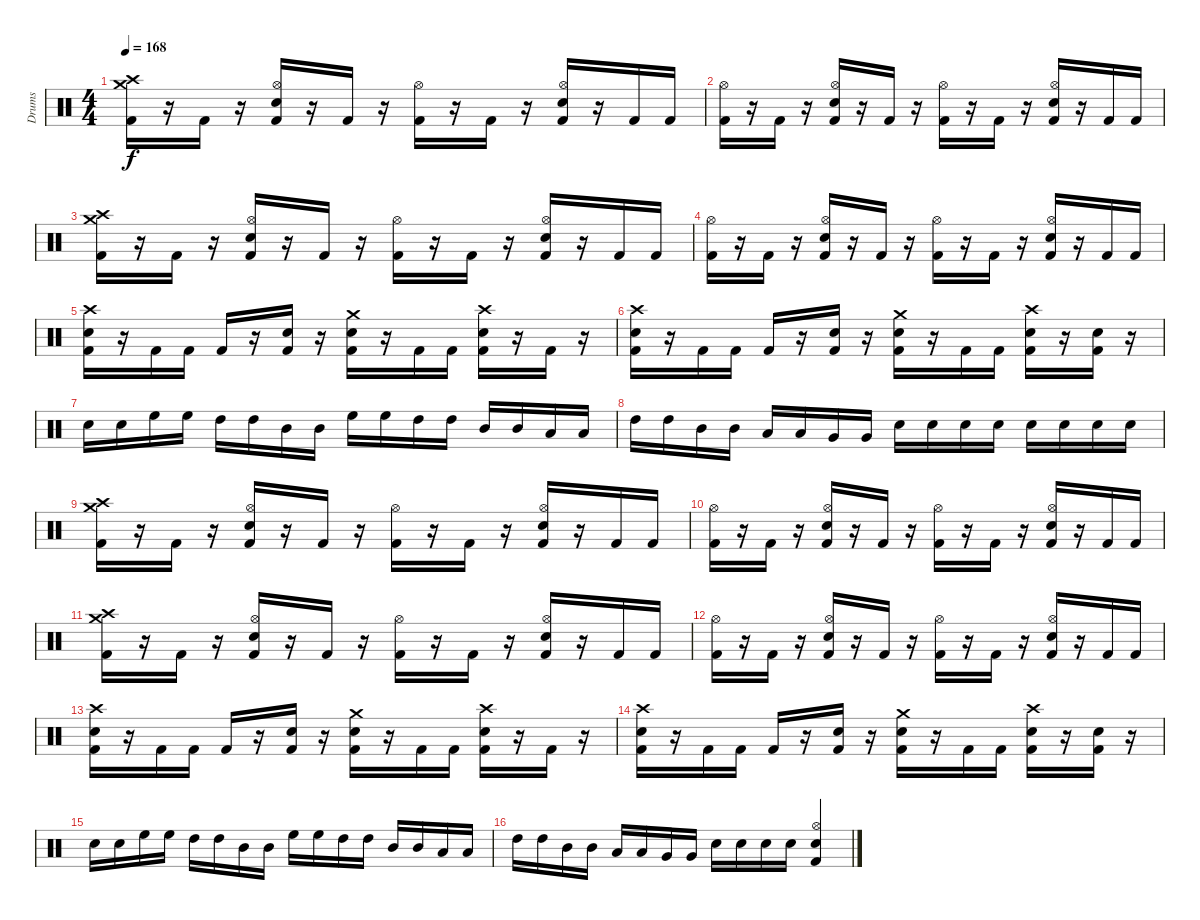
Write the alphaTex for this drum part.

\track ("Drums" "Drums") {instrument percussion}
\staff {score}
\articulation defaults
\ts (4 4)
\tempo 168
\clef neutral
\ks c
("Crash medium (hit)" "Crash high (hit)" "Kick (hit) 2").16{dy f} r.16 "Kick (hit) 2".16 r.16 ("Hi-Hat (open)" "Snare (hit) 2" "Kick (hit) 2").16 r.16 "Kick (hit) 2".16 r.16 ("Hi-Hat (open)" "Kick (hit) 2").16 r.16 "Kick (hit) 2".16 r.16 ("Hi-Hat (open)" "Snare (hit) 2" "Kick (hit) 2").16 r.16 "Kick (hit) 2".16 "Kick (hit) 2".16 |
("Hi-Hat (open)" "Kick (hit) 2").16 r.16 "Kick (hit) 2".16 r.16 ("Hi-Hat (open)" "Snare (hit) 2" "Kick (hit) 2").16 r.16 "Kick (hit) 2".16 r.16 ("Hi-Hat (open)" "Kick (hit) 2").16 r.16 "Kick (hit) 2".16 r.16 ("Hi-Hat (open)" "Snare (hit) 2" "Kick (hit) 2").16 r.16 "Kick (hit) 2".16 "Kick (hit) 2".16 |
("Crash medium (hit)" "Crash high (hit)" "Kick (hit) 2").16 r.16 "Kick (hit) 2".16 r.16 ("Hi-Hat (open)" "Snare (hit) 2" "Kick (hit) 2").16 r.16 "Kick (hit) 2".16 r.16 ("Hi-Hat (open)" "Kick (hit) 2").16 r.16 "Kick (hit) 2".16 r.16 ("Hi-Hat (open)" "Snare (hit) 2" "Kick (hit) 2").16 r.16 "Kick (hit) 2".16 "Kick (hit) 2".16 |
("Hi-Hat (open)" "Kick (hit) 2").16 r.16 "Kick (hit) 2".16 r.16 ("Hi-Hat (open)" "Snare (hit) 2" "Kick (hit) 2").16 r.16 "Kick (hit) 2".16 r.16 ("Hi-Hat (open)" "Kick (hit) 2").16 r.16 "Kick (hit) 2".16 r.16 ("Hi-Hat (open)" "Snare (hit) 2" "Kick (hit) 2").16 r.16 "Kick (hit) 2".16 "Kick (hit) 2".16 |
("Crash high (hit)" "Snare (hit) 2" "Kick (hit) 2").16 r.16 "Kick (hit) 2".16 "Kick (hit) 2".16 "Kick (hit) 2".16 r.16 ("Snare (hit) 2" "Kick (hit) 2").16 r.16 ("Crash medium (hit)" "Snare (hit) 2" "Kick (hit) 2").16 r.16 "Kick (hit) 2".16 "Kick (hit) 2".16 ("Crash high (hit)" "Snare (hit) 2" "Kick (hit) 2").16 r.16 "Kick (hit) 2".16 r.16 |
("Crash high (hit)" "Snare (hit) 2" "Kick (hit) 2").16 r.16 "Kick (hit) 2".16 "Kick (hit) 2".16 "Kick (hit) 2".16 r.16 ("Snare (hit) 2" "Kick (hit) 2").16 r.16 ("Crash medium (hit)" "Snare (hit) 2" "Kick (hit) 2").16 r.16 "Kick (hit) 2".16 "Kick (hit) 2".16 ("Crash high (hit)" "Snare (hit) 2" "Kick (hit) 2").16 r.16 ("Snare (hit) 2" "Kick (hit) 2").16 r.16 |
"Snare (hit) 2".16 "Snare (hit) 2".16 "High Floor Tom (hit)".16 "High Floor Tom (hit)".16 "High Tom (hit)".16 "High Tom (hit)".16 "Mid Tom (hit)".16 "Mid Tom (hit)".16 "High Floor Tom (hit)".16 "High Floor Tom (hit)".16 "High Tom (hit)".16 "High Tom (hit)".16 "Mid Tom (hit)".16 "Mid Tom (hit)".16 "Low Tom (hit)".16 "Low Tom (hit)".16 |
"High Tom (hit)".16 "High Tom (hit)".16 "Mid Tom (hit)".16 "Mid Tom (hit)".16 "Low Tom (hit)".16 "Low Tom (hit)".16 "Very Low Tom (hit)".16 "Very Low Tom (hit)".16 "Snare (hit) 2".16 "Snare (hit) 2".16 "Snare (hit) 2".16 "Snare (hit) 2".16 "Snare (hit) 2".16 "Snare (hit) 2".16 "Snare (hit) 2".16 "Snare (hit) 2".16 |
("Crash medium (hit)" "Crash high (hit)" "Kick (hit) 2").16 r.16 "Kick (hit) 2".16 r.16 ("Hi-Hat (open)" "Snare (hit) 2" "Kick (hit) 2").16 r.16 "Kick (hit) 2".16 r.16 ("Hi-Hat (open)" "Kick (hit) 2").16 r.16 "Kick (hit) 2".16 r.16 ("Hi-Hat (open)" "Snare (hit) 2" "Kick (hit) 2").16 r.16 "Kick (hit) 2".16 "Kick (hit) 2".16 |
("Hi-Hat (open)" "Kick (hit) 2").16 r.16 "Kick (hit) 2".16 r.16 ("Hi-Hat (open)" "Snare (hit) 2" "Kick (hit) 2").16 r.16 "Kick (hit) 2".16 r.16 ("Hi-Hat (open)" "Kick (hit) 2").16 r.16 "Kick (hit) 2".16 r.16 ("Hi-Hat (open)" "Snare (hit) 2" "Kick (hit) 2").16 r.16 "Kick (hit) 2".16 "Kick (hit) 2".16 |
("Crash medium (hit)" "Crash high (hit)" "Kick (hit) 2").16 r.16 "Kick (hit) 2".16 r.16 ("Hi-Hat (open)" "Snare (hit) 2" "Kick (hit) 2").16 r.16 "Kick (hit) 2".16 r.16 ("Hi-Hat (open)" "Kick (hit) 2").16 r.16 "Kick (hit) 2".16 r.16 ("Hi-Hat (open)" "Snare (hit) 2" "Kick (hit) 2").16 r.16 "Kick (hit) 2".16 "Kick (hit) 2".16 |
("Hi-Hat (open)" "Kick (hit) 2").16 r.16 "Kick (hit) 2".16 r.16 ("Hi-Hat (open)" "Snare (hit) 2" "Kick (hit) 2").16 r.16 "Kick (hit) 2".16 r.16 ("Hi-Hat (open)" "Kick (hit) 2").16 r.16 "Kick (hit) 2".16 r.16 ("Hi-Hat (open)" "Snare (hit) 2" "Kick (hit) 2").16 r.16 "Kick (hit) 2".16 "Kick (hit) 2".16 |
("Crash high (hit)" "Snare (hit) 2" "Kick (hit) 2").16 r.16 "Kick (hit) 2".16 "Kick (hit) 2".16 "Kick (hit) 2".16 r.16 ("Snare (hit) 2" "Kick (hit) 2").16 r.16 ("Crash medium (hit)" "Snare (hit) 2" "Kick (hit) 2").16 r.16 "Kick (hit) 2".16 "Kick (hit) 2".16 ("Crash high (hit)" "Snare (hit) 2" "Kick (hit) 2").16 r.16 "Kick (hit) 2".16 r.16 |
("Crash high (hit)" "Snare (hit) 2" "Kick (hit) 2").16 r.16 "Kick (hit) 2".16 "Kick (hit) 2".16 "Kick (hit) 2".16 r.16 ("Snare (hit) 2" "Kick (hit) 2").16 r.16 ("Crash medium (hit)" "Snare (hit) 2" "Kick (hit) 2").16 r.16 "Kick (hit) 2".16 "Kick (hit) 2".16 ("Crash high (hit)" "Snare (hit) 2" "Kick (hit) 2").16 r.16 ("Snare (hit) 2" "Kick (hit) 2").16 r.16 |
"Snare (hit) 2".16 "Snare (hit) 2".16 "High Floor Tom (hit)".16 "High Floor Tom (hit)".16 "High Tom (hit)".16 "High Tom (hit)".16 "Mid Tom (hit)".16 "Mid Tom (hit)".16 "High Floor Tom (hit)".16 "High Floor Tom (hit)".16 "High Tom (hit)".16 "High Tom (hit)".16 "Mid Tom (hit)".16 "Mid Tom (hit)".16 "Low Tom (hit)".16 "Low Tom (hit)".16 |
"High Tom (hit)".16 "High Tom (hit)".16 "Mid Tom (hit)".16 "Mid Tom (hit)".16 "Low Tom (hit)".16 "Low Tom (hit)".16 "Very Low Tom (hit)".16 "Very Low Tom (hit)".16 "Snare (hit) 2".16 "Snare (hit) 2".16 "Snare (hit) 2".16 "Snare (hit) 2".16 ("Hi-Hat (open)" "Snare (hit) 2" "Kick (hit) 2").4
